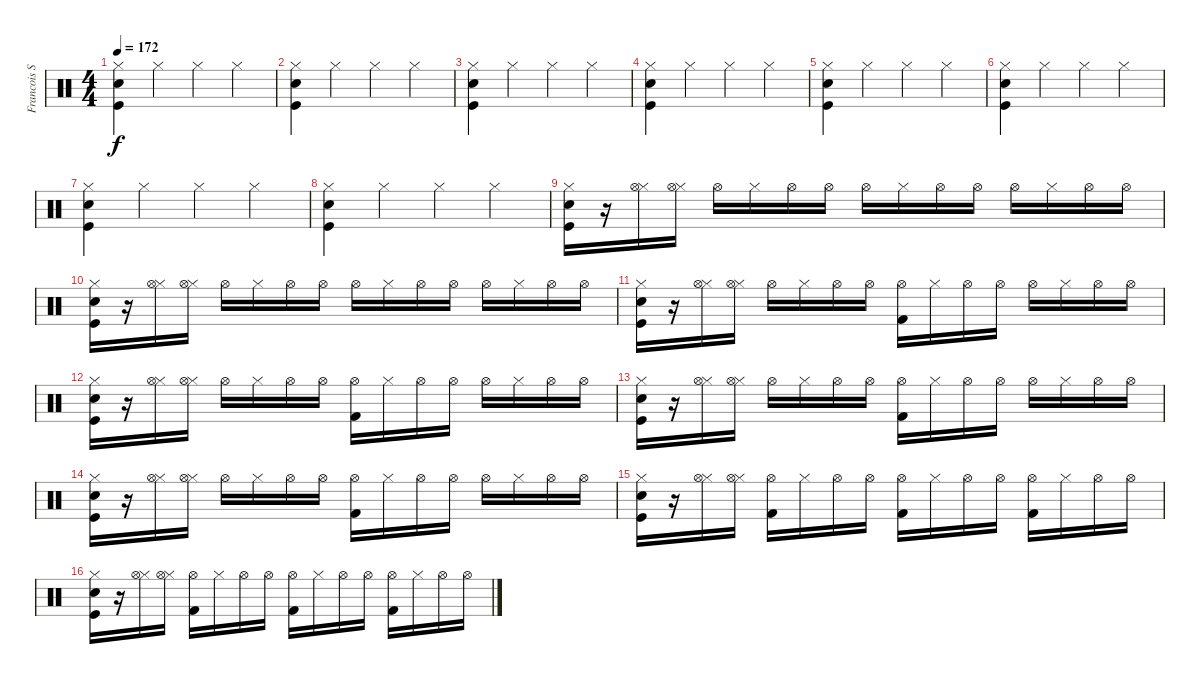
\track ("Francois Soulier" "Francois S") {instrument percussion}
\staff {score}
\articulation defaults
\ts (4 4)
\tempo 172
\clef neutral
\ks c
("Hi-Hat (closed)" "Snare (hit) 2" "Kick (hit)").4{dy f} "Hi-Hat (closed)".4 "Hi-Hat (closed)".4 "Hi-Hat (closed)".4 |
("Hi-Hat (closed)" "Snare (hit) 2" "Kick (hit)").4 "Hi-Hat (closed)".4 "Hi-Hat (closed)".4 "Hi-Hat (closed)".4 |
("Hi-Hat (closed)" "Snare (hit) 2" "Kick (hit)").4 "Hi-Hat (closed)".4 "Hi-Hat (closed)".4 "Hi-Hat (closed)".4 |
("Hi-Hat (closed)" "Snare (hit) 2" "Kick (hit)").4 "Hi-Hat (closed)".4 "Hi-Hat (closed)".4 "Hi-Hat (closed)".4 |
("Hi-Hat (closed)" "Snare (hit) 2" "Kick (hit)").4 "Hi-Hat (closed)".4 "Hi-Hat (closed)".4 "Hi-Hat (closed)".4 |
("Hi-Hat (closed)" "Snare (hit) 2" "Kick (hit)").4 "Hi-Hat (closed)".4 "Hi-Hat (closed)".4 "Hi-Hat (closed)".4 |
("Hi-Hat (closed)" "Snare (hit) 2" "Kick (hit)").4 "Hi-Hat (closed)".4 "Hi-Hat (closed)".4 "Hi-Hat (closed)".4 |
("Hi-Hat (closed)" "Snare (hit) 2" "Kick (hit)").4 "Hi-Hat (closed)".4 "Hi-Hat (closed)".4 "Hi-Hat (closed)".4 |
("Hi-Hat (closed)" "Snare (hit) 2" "Kick (hit)").16 r.16 ("Hi-Hat (closed)" "Hi-Hat (open)").16 ("Hi-Hat (closed)" "Hi-Hat (open)").16 "Hi-Hat (open)".16 "Hi-Hat (closed)".16 "Hi-Hat (open)".16 "Hi-Hat (open)".16 "Hi-Hat (open)".16 "Hi-Hat (closed)".16 "Hi-Hat (open)".16 "Hi-Hat (open)".16 "Hi-Hat (open)".16 "Hi-Hat (closed)".16 "Hi-Hat (open)".16 "Hi-Hat (open)".16 |
("Hi-Hat (closed)" "Snare (hit) 2" "Kick (hit)").16 r.16 ("Hi-Hat (closed)" "Hi-Hat (open)").16 ("Hi-Hat (closed)" "Hi-Hat (open)").16 "Hi-Hat (open)".16 "Hi-Hat (closed)".16 "Hi-Hat (open)".16 "Hi-Hat (open)".16 "Hi-Hat (open)".16 "Hi-Hat (closed)".16 "Hi-Hat (open)".16 "Hi-Hat (open)".16 "Hi-Hat (open)".16 "Hi-Hat (closed)".16 "Hi-Hat (open)".16 "Hi-Hat (open)".16 |
("Hi-Hat (closed)" "Snare (hit) 2" "Kick (hit)").16 r.16 ("Hi-Hat (closed)" "Hi-Hat (open)").16 ("Hi-Hat (closed)" "Hi-Hat (open)").16 "Hi-Hat (open)".16 "Hi-Hat (closed)".16 "Hi-Hat (open)".16 "Hi-Hat (open)".16 ("Kick (hit) 2" "Hi-Hat (open)").16 "Hi-Hat (closed)".16 "Hi-Hat (open)".16 "Hi-Hat (open)".16 "Hi-Hat (open)".16 "Hi-Hat (closed)".16 "Hi-Hat (open)".16 "Hi-Hat (open)".16 |
("Hi-Hat (closed)" "Snare (hit) 2" "Kick (hit)").16 r.16 ("Hi-Hat (closed)" "Hi-Hat (open)").16 ("Hi-Hat (closed)" "Hi-Hat (open)").16 "Hi-Hat (open)".16 "Hi-Hat (closed)".16 "Hi-Hat (open)".16 "Hi-Hat (open)".16 ("Kick (hit) 2" "Hi-Hat (open)").16 "Hi-Hat (closed)".16 "Hi-Hat (open)".16 "Hi-Hat (open)".16 "Hi-Hat (open)".16 "Hi-Hat (closed)".16 "Hi-Hat (open)".16 "Hi-Hat (open)".16 |
("Hi-Hat (closed)" "Snare (hit) 2" "Kick (hit)").16 r.16 ("Hi-Hat (closed)" "Hi-Hat (open)").16 ("Hi-Hat (closed)" "Hi-Hat (open)").16 "Hi-Hat (open)".16 "Hi-Hat (closed)".16 "Hi-Hat (open)".16 "Hi-Hat (open)".16 ("Kick (hit) 2" "Hi-Hat (open)").16 "Hi-Hat (closed)".16 "Hi-Hat (open)".16 "Hi-Hat (open)".16 "Hi-Hat (open)".16 "Hi-Hat (closed)".16 "Hi-Hat (open)".16 "Hi-Hat (open)".16 |
("Hi-Hat (closed)" "Snare (hit) 2" "Kick (hit)").16 r.16 ("Hi-Hat (closed)" "Hi-Hat (open)").16 ("Hi-Hat (closed)" "Hi-Hat (open)").16 "Hi-Hat (open)".16 "Hi-Hat (closed)".16 "Hi-Hat (open)".16 "Hi-Hat (open)".16 ("Kick (hit) 2" "Hi-Hat (open)").16 "Hi-Hat (closed)".16 "Hi-Hat (open)".16 "Hi-Hat (open)".16 "Hi-Hat (open)".16 "Hi-Hat (closed)".16 "Hi-Hat (open)".16 "Hi-Hat (open)".16 |
("Hi-Hat (closed)" "Snare (hit) 2" "Kick (hit)").16 r.16 ("Hi-Hat (closed)" "Hi-Hat (open)").16 ("Hi-Hat (closed)" "Hi-Hat (open)").16 ("Kick (hit) 2" "Hi-Hat (open)").16 "Hi-Hat (closed)".16 "Hi-Hat (open)".16 "Hi-Hat (open)".16 ("Kick (hit) 2" "Hi-Hat (open)").16 "Hi-Hat (closed)".16 "Hi-Hat (open)".16 "Hi-Hat (open)".16 ("Kick (hit) 2" "Hi-Hat (open)").16 "Hi-Hat (closed)".16 "Hi-Hat (open)".16 "Hi-Hat (open)".16 |
("Hi-Hat (closed)" "Snare (hit) 2" "Kick (hit)").16 r.16 ("Hi-Hat (closed)" "Hi-Hat (open)").16 ("Hi-Hat (closed)" "Hi-Hat (open)").16 ("Kick (hit) 2" "Hi-Hat (open)").16 "Hi-Hat (closed)".16 "Hi-Hat (open)".16 "Hi-Hat (open)".16 ("Kick (hit) 2" "Hi-Hat (open)").16 "Hi-Hat (closed)".16 "Hi-Hat (open)".16 "Hi-Hat (open)".16 ("Kick (hit) 2" "Hi-Hat (open)").16 "Hi-Hat (closed)".16 "Hi-Hat (open)".16 "Hi-Hat (open)".16
